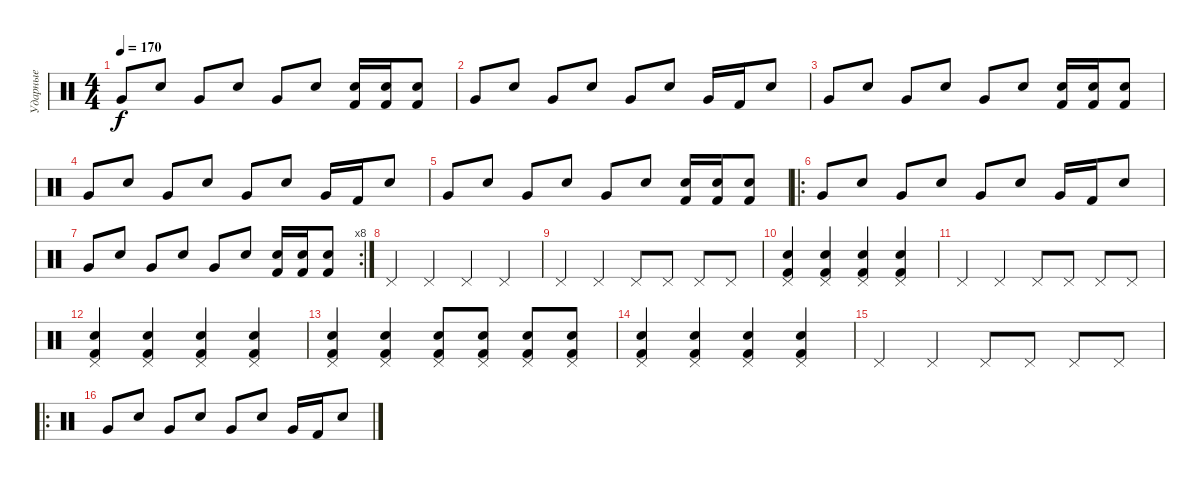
\track ("Ударные" "Ударные") {instrument percussion bank 25}
\staff {score}
\articulation defaults
\ts (4 4)
\tempo 170
\clef neutral
\ks c "Very Low Tom (hit)".8{dy f} "Electric Snare (hit)".8 "Very Low Tom (hit)".8 "Electric Snare (hit)".8 "Very Low Tom (hit)".8 "Electric Snare (hit)".8
("Electric Snare (hit)" "Kick (hit) 2").16 ("Snare (hit) 2" "Kick (hit) 2").16 ("Electric Snare (hit)" "Kick (hit) 2").8 |
"Very Low Tom (hit)".8 "Electric Snare (hit)".8 "Very Low Tom (hit)".8 "Electric Snare (hit)".8 "Very Low Tom (hit)".8 "Electric Snare (hit)".8 "Very Low Tom (hit)".16 "Kick (hit) 2".16 "Electric Snare (hit)".8 |
"Very Low Tom (hit)".8 "Electric Snare (hit)".8 "Very Low Tom (hit)".8 "Electric Snare (hit)".8 "Very Low Tom (hit)".8 "Electric Snare (hit)".8 ("Electric Snare (hit)" "Kick (hit) 2").16 ("Snare (hit) 2" "Kick (hit) 2").16 ("Electric Snare (hit)" "Kick (hit) 2").8 |
"Very Low Tom (hit)".8 "Electric Snare (hit)".8 "Very Low Tom (hit)".8 "Electric Snare (hit)".8 "Very Low Tom (hit)".8 "Electric Snare (hit)".8 "Very Low Tom (hit)".16 "Kick (hit) 2".16 "Electric Snare (hit)".8 |
"Very Low Tom (hit)".8 "Electric Snare (hit)".8 "Very Low Tom (hit)".8 "Electric Snare (hit)".8 "Very Low Tom (hit)".8 "Electric Snare (hit)".8 ("Electric Snare (hit)" "Kick (hit) 2").16 ("Snare (hit) 2" "Kick (hit) 2").16 ("Electric Snare (hit)" "Kick (hit) 2").8 |
\ro "Very Low Tom (hit)".8 "Electric Snare (hit)".8 "Very Low Tom (hit)".8 "Electric Snare (hit)".8 "Very Low Tom (hit)".8 "Electric Snare (hit)".8 "Very Low Tom (hit)".16 "Kick (hit) 2".16 "Electric Snare (hit)".8
|
\rc 8 "Very Low Tom (hit)".8 "Electric Snare (hit)".8 "Very Low Tom (hit)".8 "Electric Snare (hit)".8 "Very Low Tom (hit)".8 "Electric Snare (hit)".8
("Electric Snare (hit)" "Kick (hit) 2").16 ("Snare (hit) 2" "Kick (hit) 2").16 ("Electric Snare (hit)" "Kick (hit) 2").8 |
"Pedal Hi-Hat (hit)".4 "Pedal Hi-Hat (hit)".4 "Pedal Hi-Hat (hit)".4 "Pedal Hi-Hat (hit)".4 |
"Pedal Hi-Hat (hit)".4 "Pedal Hi-Hat (hit)".4 "Pedal Hi-Hat (hit)".8 "Pedal Hi-Hat (hit)".8 "Pedal Hi-Hat (hit)".8 "Pedal Hi-Hat (hit)".8 |
("Pedal Hi-Hat (hit)" "Snare (hit) 2" "Kick (hit) 2").4 ("Pedal Hi-Hat (hit)" "Snare (hit) 2" "Kick (hit) 2").4 ("Pedal Hi-Hat (hit)" "Snare (hit) 2" "Kick (hit) 2").4 ("Pedal Hi-Hat (hit)" "Snare (hit) 2" "Kick (hit) 2").4 |
"Pedal Hi-Hat (hit)".4 "Pedal Hi-Hat (hit)".4 "Pedal Hi-Hat (hit)".8 "Pedal Hi-Hat (hit)".8 "Pedal Hi-Hat (hit)".8 "Pedal Hi-Hat (hit)".8 |
("Pedal Hi-Hat (hit)" "Snare (hit) 2" "Kick (hit) 2").4 ("Pedal Hi-Hat (hit)" "Snare (hit) 2" "Kick (hit) 2").4 ("Pedal Hi-Hat (hit)" "Snare (hit) 2" "Kick (hit) 2").4 ("Pedal Hi-Hat (hit)" "Snare (hit) 2" "Kick (hit) 2").4 |
("Pedal Hi-Hat (hit)" "Snare (hit) 2" "Kick (hit) 2").4 ("Pedal Hi-Hat (hit)" "Snare (hit) 2" "Kick (hit) 2").4 ("Pedal Hi-Hat (hit)" "Snare (hit) 2" "Kick (hit) 2").8 ("Pedal Hi-Hat (hit)" "Snare (hit) 2" "Kick (hit) 2").8 ("Pedal Hi-Hat (hit)" "Snare (hit) 2" "Kick (hit) 2").8 ("Pedal Hi-Hat (hit)" "Snare (hit) 2" "Kick (hit) 2").8 |
("Pedal Hi-Hat (hit)" "Snare (hit) 2" "Kick (hit) 2").4 ("Pedal Hi-Hat (hit)" "Snare (hit) 2" "Kick (hit) 2").4 ("Pedal Hi-Hat (hit)" "Snare (hit) 2" "Kick (hit) 2").4 ("Pedal Hi-Hat (hit)" "Snare (hit) 2" "Kick (hit) 2").4 |
"Pedal Hi-Hat (hit)".4 "Pedal Hi-Hat (hit)".4 "Pedal Hi-Hat (hit)".8 "Pedal Hi-Hat (hit)".8 "Pedal Hi-Hat (hit)".8 "Pedal Hi-Hat (hit)".8 |
\ro "Very Low Tom (hit)".8 "Electric Snare (hit)".8 "Very Low Tom (hit)".8 "Electric Snare (hit)".8 "Very Low Tom (hit)".8 "Electric Snare (hit)".8 "Very Low Tom (hit)".16 "Kick (hit) 2".16 "Electric Snare (hit)".8
